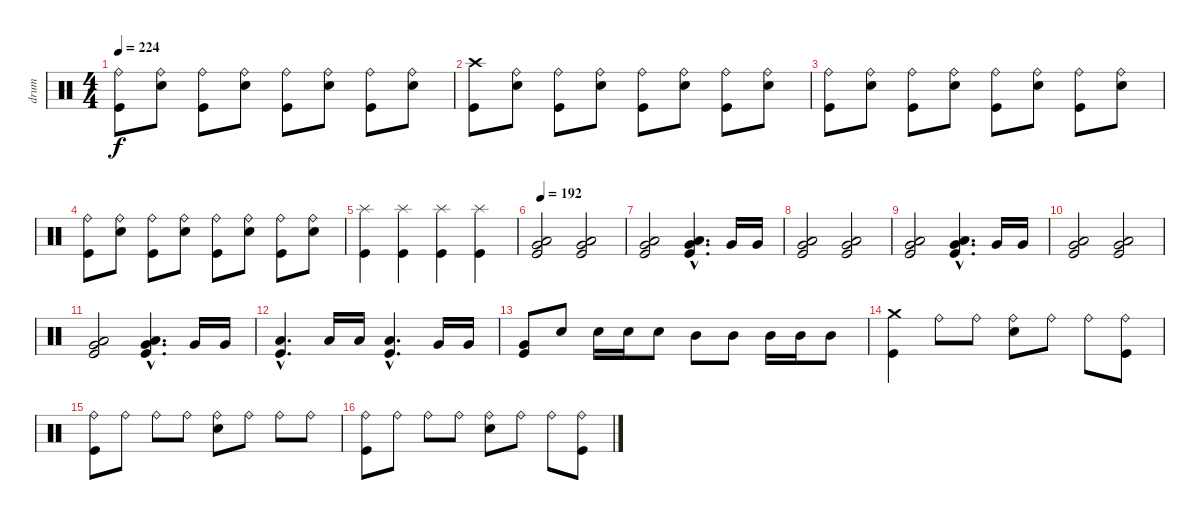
\track ("drum" "drum") {instrument percussion}
\staff {score}
\articulation defaults
\ts (4 4)
\tempo 224
\clef neutral
\ks c
("Kick (hit)" "Ride (bell)").8{dy f} ("Electric Snare (hit)" "Ride (bell)").8 ("Kick (hit)" "Ride (bell)").8 ("Electric Snare (hit)" "Ride (bell)").8 ("Kick (hit)" "Ride (bell)").8 ("Electric Snare (hit)" "Ride (bell)").8 ("Kick (hit)" "Ride (bell)").8 ("Electric Snare (hit)" "Ride (bell)").8 |
("Kick (hit)" "Crash high (hit)").8 ("Electric Snare (hit)" "Ride (bell)").8 ("Kick (hit)" "Ride (bell)").8 ("Electric Snare (hit)" "Ride (bell)").8 ("Kick (hit)" "Ride (bell)").8 ("Electric Snare (hit)" "Ride (bell)").8 ("Kick (hit)" "Ride (bell)").8 ("Electric Snare (hit)" "Ride (bell)").8 |
("Kick (hit)" "Ride (bell)").8 ("Electric Snare (hit)" "Ride (bell)").8 ("Kick (hit)" "Ride (bell)").8 ("Electric Snare (hit)" "Ride (bell)").8 ("Kick (hit)" "Ride (bell)").8 ("Electric Snare (hit)" "Ride (bell)").8 ("Kick (hit)" "Ride (bell)").8 ("Electric Snare (hit)" "Ride (bell)").8 |
("Kick (hit)" "Ride (bell)").8 ("Electric Snare (hit)" "Ride (bell)").8 ("Kick (hit)" "Ride (bell)").8 ("Electric Snare (hit)" "Ride (bell)").8 ("Kick (hit)" "Ride (bell)").8 ("Electric Snare (hit)" "Ride (bell)").8 ("Kick (hit)" "Ride (bell)").8 ("Electric Snare (hit)" "Ride (bell)").8 |
("Kick (hit)" "Splash (hit)").4 ("Kick (hit)" "Splash (hit)").4 ("Kick (hit)" "Splash (hit)").4 ("Kick (hit)" "Splash (hit)").4 |
\tempo 192
("Kick (hit)" "Very Low Tom (hit)" "Low Floor Tom (hit)").2 ("Kick (hit)" "Very Low Tom (hit)" "Low Floor Tom (hit)").2 |
("Kick (hit)" "Very Low Tom (hit)" "Low Floor Tom (hit)").2 ("Kick (hit)"{hac} "Very Low Tom (hit)"{hac} "Low Floor Tom (hit)"{hac}).4{d} "Very Low Tom (hit)".16 "Very Low Tom (hit)".16 |
("Kick (hit)" "Very Low Tom (hit)" "Low Floor Tom (hit)").2 ("Kick (hit)" "Very Low Tom (hit)" "Low Floor Tom (hit)").2 |
("Kick (hit)" "Very Low Tom (hit)" "Low Floor Tom (hit)").2 ("Kick (hit)"{hac} "Very Low Tom (hit)"{hac} "Low Floor Tom (hit)"{hac}).4{d} "Very Low Tom (hit)".16 "Very Low Tom (hit)".16 |
("Kick (hit)" "Very Low Tom (hit)" "Low Floor Tom (hit)").2 ("Kick (hit)" "Very Low Tom (hit)" "Low Floor Tom (hit)").2 |
("Kick (hit)" "Very Low Tom (hit)" "Low Floor Tom (hit)").2 ("Kick (hit)"{hac} "Very Low Tom (hit)"{hac} "Low Floor Tom (hit)"{hac}).4{d} "Very Low Tom (hit)".16 "Very Low Tom (hit)".16 |
("Kick (hit)"{hac} "Low Floor Tom (hit)"{hac}).4{d} "Low Tom (hit)".16 "Low Tom (hit)".16 ("Kick (hit)"{hac} "Low Tom (hit)"{hac}).4{d} "Very Low Tom (hit)".16 "Very Low Tom (hit)".16 |
("Kick (hit)" "Very Low Tom (hit)").8 "Electric Snare (hit)".8 "Electric Snare (hit)".16 "Electric Snare (hit)".16 "Electric Snare (hit)".8 "Mid Tom (hit)".8 "Mid Tom (hit)".8 "Mid Tom (hit)".16 "Mid Tom (hit)".16 "Mid Tom (hit)".8 |
("Kick (hit)" "Crash medium (hit)").4 "Ride (bell)".8 "Ride (bell)".8 ("Electric Snare (hit)" "Ride (bell)").8 "Ride (bell)".8 "Ride (bell)".8 ("Kick (hit)" "Ride (bell)").8 |
("Kick (hit)" "Ride (bell)").8 "Ride (bell)".8 "Ride (bell)".8 "Ride (bell)".8 ("Electric Snare (hit)" "Ride (bell)").8 "Ride (bell)".8 "Ride (bell)".8 "Ride (bell)".8 |
("Kick (hit)" "Ride (bell)").8 "Ride (bell)".8 "Ride (bell)".8 "Ride (bell)".8 ("Electric Snare (hit)" "Ride (bell)").8 "Ride (bell)".8 "Ride (bell)".8 ("Kick (hit)" "Ride (bell)").8
